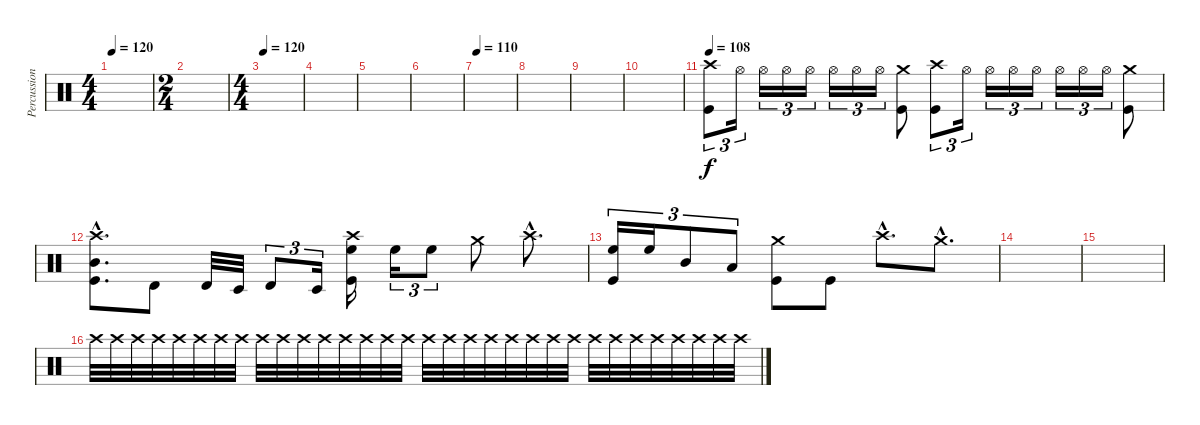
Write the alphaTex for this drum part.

\track ("Percussion" "Percussion") {instrument percussion}
\staff {score}
\articulation defaults
\ts (4 4)
\tempo 120
\clef neutral
\ks c
|
\ts (2 4)
|
\ts (4 4)
\section ("" "")
\tempo 120
|
|
|
|
\tempo 110
|
|
|
|
\section ("" "")
\tempo 108
("Crash high (hit)" "Kick (hit)").8{tu (3 2)} "Hi-Hat (open)".16{tu (3 2)} "Hi-Hat (open)".16{tu (3 2)} "Hi-Hat (open)".16{tu (3 2)} "Hi-Hat (open)".16{tu (3 2)} "Hi-Hat (open)".16{tu (3 2)} "Hi-Hat (open)".16{tu (3 2)} "Hi-Hat (open)".16{tu (3 2)} ("Crash medium (hit)" "Kick (hit)").8 ("Crash high (hit)" "Kick (hit)").8{tu (3 2)} "Hi-Hat (open)".16{tu (3 2)} "Hi-Hat (open)".16{tu (3 2)} "Hi-Hat (open)".16{tu (3 2)} "Hi-Hat (open)".16{tu (3 2)} "Hi-Hat (open)".16{tu (3 2)} "Hi-Hat (open)".16{tu (3 2)} "Hi-Hat (open)".16{tu (3 2)} ("Crash medium (hit)" "Kick (hit)").8 |
("Crash high (hit)"{hac} "Mid Tom (hit)"{hac} "Kick (hit)"{hac}).8{d} "Timbale high (hit)".8 "Timbale high (hit)".32 "Timbale low (hit)".32 "Timbale high (hit)".8{tu (3 2)} "Timbale low (hit)".16{tu (3 2)} ("Crash high (hit)" "High Floor Tom (hit)" "Kick (hit)").16 "High Floor Tom (hit)".16{tu (3 2)} "High Floor Tom (hit)".8{tu (3 2)} "Crash medium (hit)".8 "Crash high (hit)"{hac}.8{d} |
("High Floor Tom (hit)" "Kick (hit)").16{tu (3 2)} "High Floor Tom (hit)".16{tu (3 2)} "Mid Tom (hit)".8{tu (3 2)} "Low Tom (hit)".8{tu (3 2)} ("Crash medium (hit)" "Kick (hit)").8 "Kick (hit)".8 "Crash high (hit)"{hac}.8{d} "Crash medium (hit)"{hac}.8{d} |
|
|
"Crash high (hit)".32 "Crash high (hit)".32 "Crash high (hit)".32 "Crash high (hit)".32 "Crash high (hit)".32 "Crash high (hit)".32 "Crash high (hit)".32 "Crash high (hit)".32 "Crash high (hit)".32 "Crash high (hit)".32 "Crash high (hit)".32 "Crash high (hit)".32 "Crash high (hit)".32 "Crash high (hit)".32 "Crash high (hit)".32 "Crash high (hit)".32 "Crash high (hit)".32 "Crash high (hit)".32 "Crash high (hit)".32 "Crash high (hit)".32 "Crash high (hit)".32 "Crash high (hit)".32 "Crash high (hit)".32 "Crash high (hit)".32 "Crash high (hit)".32 "Crash high (hit)".32 "Crash high (hit)".32 "Crash high (hit)".32 "Crash high (hit)".32 "Crash high (hit)".32 "Crash high (hit)".32 "Crash high (hit)".32
